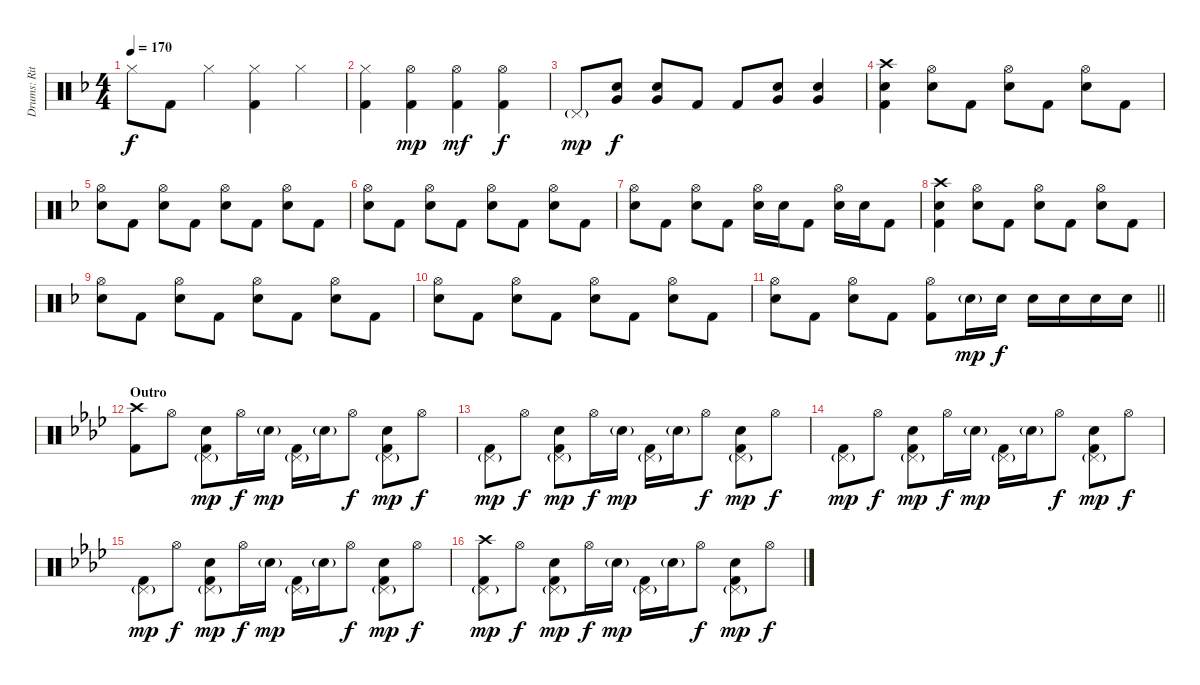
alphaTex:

\track ("Drums: Ritsu Tainaka" "Drums: Rit") {instrument percussion}
\staff {score}
\articulation defaults
\ts (4 4)
\tempo 170
\clef neutral
\ks f "Hi-Hat (closed)".8{dy f} "Kick (hit) 2".8 "Hi-Hat (closed)".4
("Hi-Hat (closed)" "Kick (hit) 2").4 "Hi-Hat (closed)".4 |
("Hi-Hat (closed)" "Kick (hit) 2").4 ("Hi-Hat (open)" "Kick (hit) 2").4{dy mp} ("Hi-Hat (open)" "Kick (hit) 2").4{dy mf} ("Hi-Hat (open)" "Kick (hit) 2").4{dy f} |
"Pedal Hi-Hat (hit)"{g}.8{dy mp} ("Electric Snare (hit)" "Very Low Tom (hit)").8{dy f} ("Electric Snare (hit)" "Very Low Tom (hit)").8 "Kick (hit) 2".8 "Kick (hit) 2".8 ("Electric Snare (hit)" "Very Low Tom (hit)").8 ("Electric Snare (hit)" "Very Low Tom (hit)").4 |
("Crash high (hit)" "Electric Snare (hit)" "Kick (hit) 2").4 ("Hi-Hat (open)" "Electric Snare (hit)").8 "Kick (hit) 2".8 ("Hi-Hat (open)" "Electric Snare (hit)").8 "Kick (hit) 2".8 ("Hi-Hat (open)" "Electric Snare (hit)").8 "Kick (hit) 2".8 |
("Hi-Hat (open)" "Electric Snare (hit)").8 "Kick (hit) 2".8 ("Hi-Hat (open)" "Electric Snare (hit)").8 "Kick (hit) 2".8 ("Hi-Hat (open)" "Electric Snare (hit)").8 "Kick (hit) 2".8 ("Hi-Hat (open)" "Electric Snare (hit)").8 "Kick (hit) 2".8 |
("Hi-Hat (open)" "Electric Snare (hit)").8 "Kick (hit) 2".8 ("Hi-Hat (open)" "Electric Snare (hit)").8 "Kick (hit) 2".8 ("Hi-Hat (open)" "Electric Snare (hit)").8 "Kick (hit) 2".8 ("Hi-Hat (open)" "Electric Snare (hit)").8 "Kick (hit) 2".8 |
("Hi-Hat (open)" "Electric Snare (hit)").8 "Kick (hit) 2".8 ("Hi-Hat (open)" "Electric Snare (hit)").8 "Kick (hit) 2".8 ("Hi-Hat (open)" "Electric Snare (hit)").16 "Electric Snare (hit)".16 "Kick (hit) 2".8 ("Hi-Hat (open)" "Electric Snare (hit)").16 "Electric Snare (hit)".16 "Kick (hit) 2".8 |
("Crash high (hit)" "Electric Snare (hit)" "Kick (hit) 2").4 ("Hi-Hat (open)" "Electric Snare (hit)").8 "Kick (hit) 2".8 ("Hi-Hat (open)" "Electric Snare (hit)").8 "Kick (hit) 2".8 ("Hi-Hat (open)" "Electric Snare (hit)").8 "Kick (hit) 2".8 |
("Hi-Hat (open)" "Electric Snare (hit)").8 "Kick (hit) 2".8 ("Hi-Hat (open)" "Electric Snare (hit)").8 "Kick (hit) 2".8 ("Hi-Hat (open)" "Electric Snare (hit)").8 "Kick (hit) 2".8 ("Hi-Hat (open)" "Electric Snare (hit)").8 "Kick (hit) 2".8 |
("Hi-Hat (open)" "Electric Snare (hit)").8 "Kick (hit) 2".8 ("Hi-Hat (open)" "Electric Snare (hit)").8 "Kick (hit) 2".8 ("Hi-Hat (open)" "Electric Snare (hit)").8 "Kick (hit) 2".8 ("Hi-Hat (open)" "Electric Snare (hit)").8 "Kick (hit) 2".8 |
\barLineRight lightlight
("Hi-Hat (open)" "Electric Snare (hit)").8 "Kick (hit) 2".8 ("Hi-Hat (open)" "Electric Snare (hit)").8 "Kick (hit) 2".8 ("Hi-Hat (open)" "Kick (hit) 2").8 "Electric Snare (hit)"{g}.16{dy mp} "Electric Snare (hit)".16{dy f} "Electric Snare (hit)".16 "Electric Snare (hit)".16 "Electric Snare (hit)".16 "Electric Snare (hit)".16 |
\section ("" "Outro")
\ks fminor
("Crash high (hit)" "Kick (hit) 2").8 "Hi-Hat (open)".8 ("Pedal Hi-Hat (hit)"{g} "Electric Snare (hit)" "Kick (hit) 2").8{dy mp} "Hi-Hat (open)".16{dy f} "Electric Snare (hit)"{g}.16{dy mp} ("Pedal Hi-Hat (hit)"{g} "Kick (hit) 2").16 "Electric Snare (hit)"{g}.16 "Hi-Hat (open)".8{dy f} ("Pedal Hi-Hat (hit)"{g} "Electric Snare (hit)" "Kick (hit) 2").8{dy mp} "Hi-Hat (open)".8{dy f} |
("Pedal Hi-Hat (hit)"{g} "Kick (hit) 2").8{dy mp} "Hi-Hat (open)".8{dy f} ("Pedal Hi-Hat (hit)"{g} "Electric Snare (hit)" "Kick (hit) 2").8{dy mp} "Hi-Hat (open)".16{dy f} "Electric Snare (hit)"{g}.16{dy mp} ("Pedal Hi-Hat (hit)"{g} "Kick (hit) 2").16 "Electric Snare (hit)"{g}.16 "Hi-Hat (open)".8{dy f} ("Pedal Hi-Hat (hit)"{g} "Electric Snare (hit)" "Kick (hit) 2").8{dy mp} "Hi-Hat (open)".8{dy f} |
("Pedal Hi-Hat (hit)"{g} "Kick (hit) 2").8{dy mp} "Hi-Hat (open)".8{dy f} ("Pedal Hi-Hat (hit)"{g} "Electric Snare (hit)" "Kick (hit) 2").8{dy mp} "Hi-Hat (open)".16{dy f} "Electric Snare (hit)"{g}.16{dy mp} ("Pedal Hi-Hat (hit)"{g} "Kick (hit) 2").16 "Electric Snare (hit)"{g}.16 "Hi-Hat (open)".8{dy f} ("Pedal Hi-Hat (hit)"{g} "Electric Snare (hit)" "Kick (hit) 2").8{dy mp} "Hi-Hat (open)".8{dy f} |
("Pedal Hi-Hat (hit)"{g} "Kick (hit) 2").8{dy mp} "Hi-Hat (open)".8{dy f} ("Pedal Hi-Hat (hit)"{g} "Electric Snare (hit)" "Kick (hit) 2").8{dy mp} "Hi-Hat (open)".16{dy f} "Electric Snare (hit)"{g}.16{dy mp} ("Pedal Hi-Hat (hit)"{g} "Kick (hit) 2").16 "Electric Snare (hit)"{g}.16 "Hi-Hat (open)".8{dy f} ("Pedal Hi-Hat (hit)"{g} "Electric Snare (hit)" "Kick (hit) 2").8{dy mp} "Hi-Hat (open)".8{dy f} |
("Crash high (hit)" "Pedal Hi-Hat (hit)"{g} "Kick (hit) 2").8{dy mp} "Hi-Hat (open)".8{dy f} ("Pedal Hi-Hat (hit)"{g} "Electric Snare (hit)" "Kick (hit) 2").8{dy mp} "Hi-Hat (open)".16{dy f} "Electric Snare (hit)"{g}.16{dy mp} ("Pedal Hi-Hat (hit)"{g} "Kick (hit) 2").16 "Electric Snare (hit)"{g}.16 "Hi-Hat (open)".8{dy f} ("Pedal Hi-Hat (hit)"{g} "Electric Snare (hit)" "Kick (hit) 2").8{dy mp} "Hi-Hat (open)".8{dy f}
